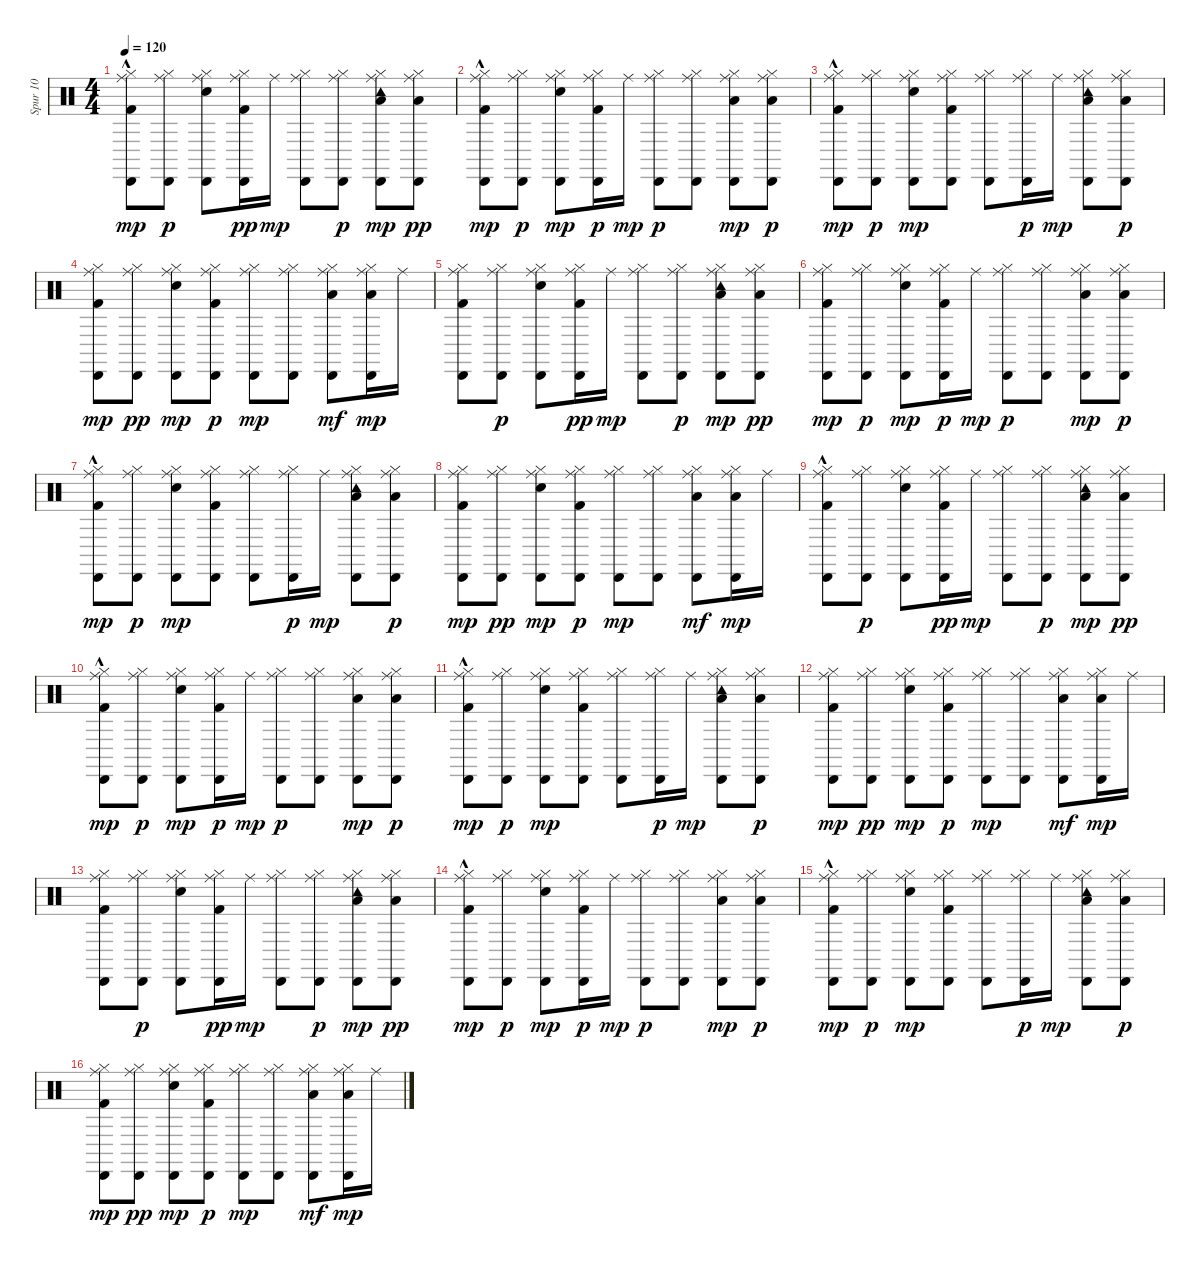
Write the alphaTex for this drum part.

\track ("Spur 10" "Spur 10") {instrument percussion}
\staff {score}
\articulation defaults
\ts (4 4)
\tempo 120
\clef neutral
\ks c
("Kick (hit) 2"{hac} "Hi-Hat (closed)" "Cabasa (hit)" "Ride (middle)").8{dy mp} ("Hi-Hat (closed)" "Cabasa (hit)" "Ride (middle)").8{dy p} ("Snare (hit) 2" "Hi-Hat (closed)" "Cabasa (hit)" "Ride (middle)").8 ("Kick (hit) 2" "Hi-Hat (closed)" "Cabasa (hit)" "Ride (middle)").16{dy pp} "Ride (middle)".16{dy mp} ("Hi-Hat (closed)" "Cabasa (hit)" "Ride (middle)").8 ("Hi-Hat (closed)" "Cabasa (hit)" "Ride (middle)").8{dy p} ("Low Tom (hit)" "Hi-Hat (closed)" "Cabasa (hit)" "Tambourine (hit)" "Ride (middle)").8{dy mp} ("Low Tom (hit)" "Hi-Hat (closed)" "Cabasa (hit)" "Ride (middle)").8{dy pp} |
("Kick (hit) 2"{hac} "Hi-Hat (closed)" "Cabasa (hit)" "Ride (middle)").8{dy mp} ("Hi-Hat (closed)" "Cabasa (hit)" "Ride (middle)").8{dy p} ("Snare (hit) 2" "Hi-Hat (closed)" "Cabasa (hit)" "Ride (middle)").8{dy mp} ("Kick (hit) 2" "Hi-Hat (closed)" "Cabasa (hit)" "Ride (middle)").16{dy p} "Ride (middle)".16{dy mp} ("Hi-Hat (closed)" "Cabasa (hit)" "Ride (middle)").8{dy p} ("Hi-Hat (closed)" "Cabasa (hit)" "Ride (middle)").8 ("Low Floor Tom (hit)" "Hi-Hat (closed)" "Cabasa (hit)" "Ride (middle)").8{dy mp} ("Low Floor Tom (hit)" "Hi-Hat (closed)" "Cabasa (hit)" "Ride (middle)").8{dy p} |
("Kick (hit) 2"{hac} "Hi-Hat (closed)" "Cabasa (hit)" "Ride (middle)").8{dy mp} ("Hi-Hat (closed)" "Cabasa (hit)" "Ride (middle)").8{dy p} ("Snare (hit) 2" "Hi-Hat (closed)" "Cabasa (hit)" "Ride (middle)").8{dy mp} ("Kick (hit) 2" "Hi-Hat (closed)" "Cabasa (hit)" "Ride (middle)").8 ("Hi-Hat (closed)" "Cabasa (hit)" "Ride (middle)").8 ("Hi-Hat (closed)" "Cabasa (hit)" "Ride (middle)").16{dy p} "Ride (middle)".16{dy mp} ("Low Tom (hit)" "Hi-Hat (closed)" "Cabasa (hit)" "Tambourine (hit)" "Ride (middle)").8 ("Low Tom (hit)" "Hi-Hat (closed)" "Cabasa (hit)" "Ride (middle)").8{dy p} |
("Kick (hit) 2" "Hi-Hat (closed)" "Cabasa (hit)" "Ride (middle)").8{dy mp} ("Hi-Hat (closed)" "Cabasa (hit)" "Ride (middle)").8{dy pp} ("Snare (hit) 2" "Hi-Hat (closed)" "Cabasa (hit)" "Ride (middle)").8{dy mp} ("Kick (hit) 2" "Hi-Hat (closed)" "Cabasa (hit)" "Ride (middle)").8{dy p} ("Hi-Hat (closed)" "Cabasa (hit)" "Ride (middle)").8{dy mp} ("Hi-Hat (closed)" "Cabasa (hit)" "Ride (middle)").8 ("Low Floor Tom (hit)" "Hi-Hat (closed)" "Cabasa (hit)" "Ride (middle)").8{dy mf} ("Low Floor Tom (hit)" "Hi-Hat (closed)" "Cabasa (hit)" "Ride (middle)").16{dy mp} "Ride (middle)".16 |
("Kick (hit) 2" "Hi-Hat (closed)" "Cabasa (hit)" "Ride (middle)").8 ("Hi-Hat (closed)" "Cabasa (hit)" "Ride (middle)").8{dy p} ("Snare (hit) 2" "Hi-Hat (closed)" "Cabasa (hit)" "Ride (middle)").8 ("Kick (hit) 2" "Hi-Hat (closed)" "Cabasa (hit)" "Ride (middle)").16{dy pp} "Ride (middle)".16{dy mp} ("Hi-Hat (closed)" "Cabasa (hit)" "Ride (middle)").8 ("Hi-Hat (closed)" "Cabasa (hit)" "Ride (middle)").8{dy p} ("Low Tom (hit)" "Hi-Hat (closed)" "Cabasa (hit)" "Tambourine (hit)" "Ride (middle)").8{dy mp} ("Low Tom (hit)" "Hi-Hat (closed)" "Cabasa (hit)" "Ride (middle)").8{dy pp} |
("Kick (hit) 2" "Hi-Hat (closed)" "Cabasa (hit)" "Ride (middle)").8{dy mp} ("Hi-Hat (closed)" "Cabasa (hit)" "Ride (middle)").8{dy p} ("Snare (hit) 2" "Hi-Hat (closed)" "Cabasa (hit)" "Ride (middle)").8{dy mp} ("Kick (hit) 2" "Hi-Hat (closed)" "Cabasa (hit)" "Ride (middle)").16{dy p} "Ride (middle)".16{dy mp} ("Hi-Hat (closed)" "Cabasa (hit)" "Ride (middle)").8{dy p} ("Hi-Hat (closed)" "Cabasa (hit)" "Ride (middle)").8 ("Low Floor Tom (hit)" "Hi-Hat (closed)" "Cabasa (hit)" "Ride (middle)").8{dy mp} ("Low Floor Tom (hit)" "Hi-Hat (closed)" "Cabasa (hit)" "Ride (middle)").8{dy p} |
("Kick (hit) 2"{hac} "Hi-Hat (closed)" "Cabasa (hit)" "Ride (middle)").8{dy mp} ("Hi-Hat (closed)" "Cabasa (hit)" "Ride (middle)").8{dy p} ("Snare (hit) 2" "Hi-Hat (closed)" "Cabasa (hit)" "Ride (middle)").8{dy mp} ("Kick (hit) 2" "Hi-Hat (closed)" "Cabasa (hit)" "Ride (middle)").8 ("Hi-Hat (closed)" "Cabasa (hit)" "Ride (middle)").8 ("Hi-Hat (closed)" "Cabasa (hit)" "Ride (middle)").16{dy p} "Ride (middle)".16{dy mp} ("Low Tom (hit)" "Hi-Hat (closed)" "Cabasa (hit)" "Tambourine (hit)" "Ride (middle)").8 ("Low Tom (hit)" "Hi-Hat (closed)" "Cabasa (hit)" "Ride (middle)").8{dy p} |
("Kick (hit) 2" "Hi-Hat (closed)" "Cabasa (hit)" "Ride (middle)").8{dy mp} ("Hi-Hat (closed)" "Cabasa (hit)" "Ride (middle)").8{dy pp} ("Snare (hit) 2" "Hi-Hat (closed)" "Cabasa (hit)" "Ride (middle)").8{dy mp} ("Kick (hit) 2" "Hi-Hat (closed)" "Cabasa (hit)" "Ride (middle)").8{dy p} ("Hi-Hat (closed)" "Cabasa (hit)" "Ride (middle)").8{dy mp} ("Hi-Hat (closed)" "Cabasa (hit)" "Ride (middle)").8 ("Low Floor Tom (hit)" "Hi-Hat (closed)" "Cabasa (hit)" "Ride (middle)").8{dy mf} ("Low Floor Tom (hit)" "Hi-Hat (closed)" "Cabasa (hit)" "Ride (middle)").16{dy mp} "Ride (middle)".16 |
("Kick (hit) 2"{hac} "Hi-Hat (closed)" "Cabasa (hit)" "Ride (middle)").8 ("Hi-Hat (closed)" "Cabasa (hit)" "Ride (middle)").8{dy p} ("Snare (hit) 2" "Hi-Hat (closed)" "Cabasa (hit)" "Ride (middle)").8 ("Kick (hit) 2" "Hi-Hat (closed)" "Cabasa (hit)" "Ride (middle)").16{dy pp} "Ride (middle)".16{dy mp} ("Hi-Hat (closed)" "Cabasa (hit)" "Ride (middle)").8 ("Hi-Hat (closed)" "Cabasa (hit)" "Ride (middle)").8{dy p} ("Low Tom (hit)" "Hi-Hat (closed)" "Cabasa (hit)" "Tambourine (hit)" "Ride (middle)").8{dy mp} ("Low Tom (hit)" "Hi-Hat (closed)" "Cabasa (hit)" "Ride (middle)").8{dy pp} |
("Kick (hit) 2"{hac} "Hi-Hat (closed)" "Cabasa (hit)" "Ride (middle)").8{dy mp} ("Hi-Hat (closed)" "Cabasa (hit)" "Ride (middle)").8{dy p} ("Snare (hit) 2" "Hi-Hat (closed)" "Cabasa (hit)" "Ride (middle)").8{dy mp} ("Kick (hit) 2" "Hi-Hat (closed)" "Cabasa (hit)" "Ride (middle)").16{dy p} "Ride (middle)".16{dy mp} ("Hi-Hat (closed)" "Cabasa (hit)" "Ride (middle)").8{dy p} ("Hi-Hat (closed)" "Cabasa (hit)" "Ride (middle)").8 ("Low Floor Tom (hit)" "Hi-Hat (closed)" "Cabasa (hit)" "Ride (middle)").8{dy mp} ("Low Floor Tom (hit)" "Hi-Hat (closed)" "Cabasa (hit)" "Ride (middle)").8{dy p} |
("Kick (hit) 2"{hac} "Hi-Hat (closed)" "Cabasa (hit)" "Ride (middle)").8{dy mp} ("Hi-Hat (closed)" "Cabasa (hit)" "Ride (middle)").8{dy p} ("Snare (hit) 2" "Hi-Hat (closed)" "Cabasa (hit)" "Ride (middle)").8{dy mp} ("Kick (hit) 2" "Hi-Hat (closed)" "Cabasa (hit)" "Ride (middle)").8 ("Hi-Hat (closed)" "Cabasa (hit)" "Ride (middle)").8 ("Hi-Hat (closed)" "Cabasa (hit)" "Ride (middle)").16{dy p} "Ride (middle)".16{dy mp} ("Low Tom (hit)" "Hi-Hat (closed)" "Cabasa (hit)" "Tambourine (hit)" "Ride (middle)").8 ("Low Tom (hit)" "Hi-Hat (closed)" "Cabasa (hit)" "Ride (middle)").8{dy p} |
("Kick (hit) 2" "Hi-Hat (closed)" "Cabasa (hit)" "Ride (middle)").8{dy mp} ("Hi-Hat (closed)" "Cabasa (hit)" "Ride (middle)").8{dy pp} ("Snare (hit) 2" "Hi-Hat (closed)" "Cabasa (hit)" "Ride (middle)").8{dy mp} ("Kick (hit) 2" "Hi-Hat (closed)" "Cabasa (hit)" "Ride (middle)").8{dy p} ("Hi-Hat (closed)" "Cabasa (hit)" "Ride (middle)").8{dy mp} ("Hi-Hat (closed)" "Cabasa (hit)" "Ride (middle)").8 ("Low Floor Tom (hit)" "Hi-Hat (closed)" "Cabasa (hit)" "Ride (middle)").8{dy mf} ("Low Floor Tom (hit)" "Hi-Hat (closed)" "Cabasa (hit)" "Ride (middle)").16{dy mp} "Ride (middle)".16 |
("Kick (hit) 2" "Hi-Hat (closed)" "Cabasa (hit)" "Ride (middle)").8 ("Hi-Hat (closed)" "Cabasa (hit)" "Ride (middle)").8{dy p} ("Snare (hit) 2" "Hi-Hat (closed)" "Cabasa (hit)" "Ride (middle)").8 ("Kick (hit) 2" "Hi-Hat (closed)" "Cabasa (hit)" "Ride (middle)").16{dy pp} "Ride (middle)".16{dy mp} ("Hi-Hat (closed)" "Cabasa (hit)" "Ride (middle)").8 ("Hi-Hat (closed)" "Cabasa (hit)" "Ride (middle)").8{dy p} ("Low Tom (hit)" "Hi-Hat (closed)" "Cabasa (hit)" "Tambourine (hit)" "Ride (middle)").8{dy mp} ("Low Tom (hit)" "Hi-Hat (closed)" "Cabasa (hit)" "Ride (middle)").8{dy pp} |
("Kick (hit) 2"{hac} "Hi-Hat (closed)" "Cabasa (hit)" "Ride (middle)").8{dy mp} ("Hi-Hat (closed)" "Cabasa (hit)" "Ride (middle)").8{dy p} ("Snare (hit) 2" "Hi-Hat (closed)" "Cabasa (hit)" "Ride (middle)").8{dy mp} ("Kick (hit) 2" "Hi-Hat (closed)" "Cabasa (hit)" "Ride (middle)").16{dy p} "Ride (middle)".16{dy mp} ("Hi-Hat (closed)" "Cabasa (hit)" "Ride (middle)").8{dy p} ("Hi-Hat (closed)" "Cabasa (hit)" "Ride (middle)").8 ("Low Floor Tom (hit)" "Hi-Hat (closed)" "Cabasa (hit)" "Ride (middle)").8{dy mp} ("Low Floor Tom (hit)" "Hi-Hat (closed)" "Cabasa (hit)" "Ride (middle)").8{dy p} |
("Kick (hit) 2"{hac} "Hi-Hat (closed)" "Cabasa (hit)" "Ride (middle)").8{dy mp} ("Hi-Hat (closed)" "Cabasa (hit)" "Ride (middle)").8{dy p} ("Snare (hit) 2" "Hi-Hat (closed)" "Cabasa (hit)" "Ride (middle)").8{dy mp} ("Kick (hit) 2" "Hi-Hat (closed)" "Cabasa (hit)" "Ride (middle)").8 ("Hi-Hat (closed)" "Cabasa (hit)" "Ride (middle)").8 ("Hi-Hat (closed)" "Cabasa (hit)" "Ride (middle)").16{dy p} "Ride (middle)".16{dy mp} ("Low Tom (hit)" "Hi-Hat (closed)" "Cabasa (hit)" "Tambourine (hit)" "Ride (middle)").8 ("Low Tom (hit)" "Hi-Hat (closed)" "Cabasa (hit)" "Ride (middle)").8{dy p} |
("Kick (hit) 2" "Hi-Hat (closed)" "Cabasa (hit)" "Ride (middle)").8{dy mp} ("Hi-Hat (closed)" "Cabasa (hit)" "Ride (middle)").8{dy pp} ("Snare (hit) 2" "Hi-Hat (closed)" "Cabasa (hit)" "Ride (middle)").8{dy mp} ("Kick (hit) 2" "Hi-Hat (closed)" "Cabasa (hit)" "Ride (middle)").8{dy p} ("Hi-Hat (closed)" "Cabasa (hit)" "Ride (middle)").8{dy mp} ("Hi-Hat (closed)" "Cabasa (hit)" "Ride (middle)").8 ("Low Floor Tom (hit)" "Hi-Hat (closed)" "Cabasa (hit)" "Ride (middle)").8{dy mf} ("Low Floor Tom (hit)" "Hi-Hat (closed)" "Cabasa (hit)" "Ride (middle)").16{dy mp} "Ride (middle)".16
